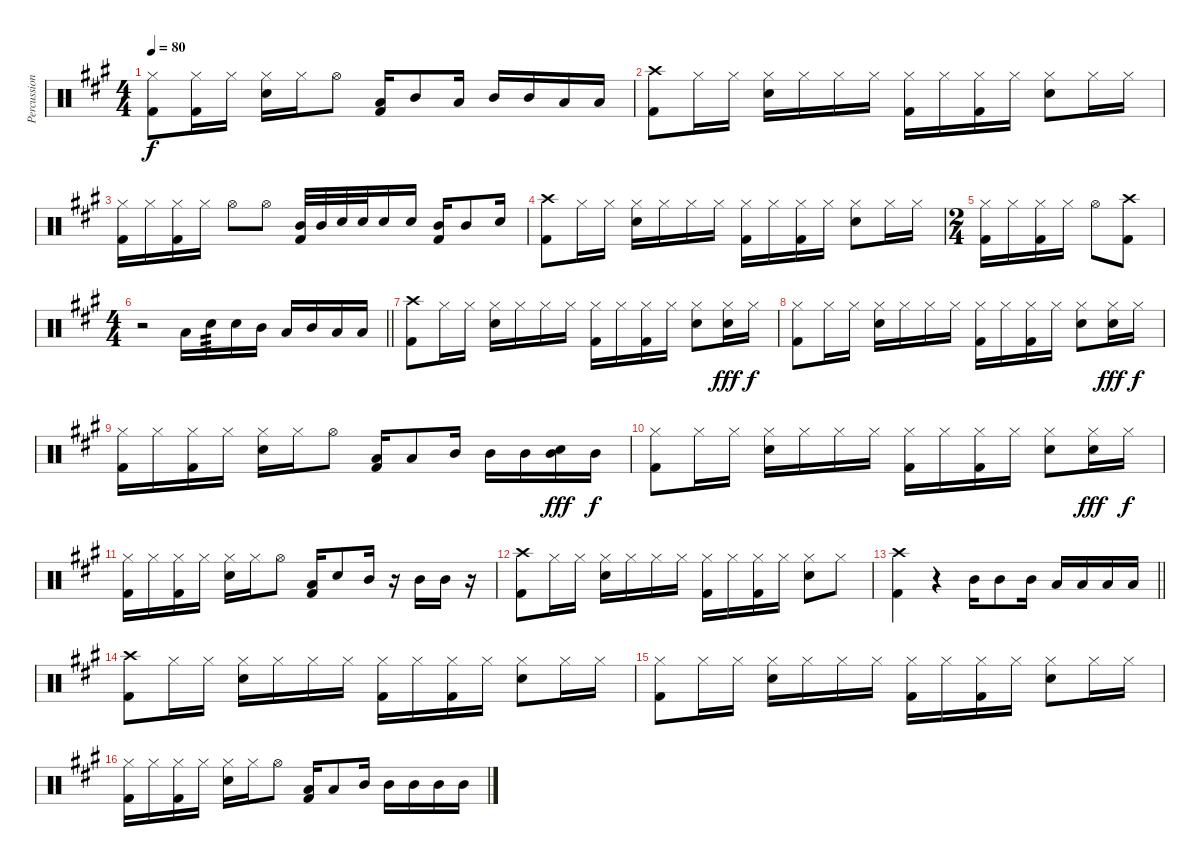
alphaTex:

\track ("Percussion" "Percussion") {instrument percussion}
\staff {score}
\articulation defaults
\ts (4 4)
\tempo 80
\clef neutral
\ks a
("Hi-Hat (closed)" "Kick (hit) 2").8{dy f} ("Hi-Hat (closed)" "Kick (hit) 2").16 "Hi-Hat (closed)".16 ("Hi-Hat (closed)" "Snare (hit) 2").16 "Hi-Hat (closed)".16 "Hi-Hat (open)".8 ("Low Floor Tom (hit)" "Kick (hit) 2").16 "Mid Tom (hit)".8 "Low Tom (hit)".16 "Mid Tom (hit)".16 "Mid Tom (hit)".16 "Low Floor Tom (hit)".16 "Low Floor Tom (hit)".16 |
("Crash high (hit)" "Kick (hit) 2").8 "Hi-Hat (closed)".16 "Hi-Hat (closed)".16 ("Hi-Hat (closed)" "Snare (hit) 2").16 "Hi-Hat (closed)".16 "Hi-Hat (closed)".16 "Hi-Hat (closed)".16 ("Hi-Hat (closed)" "Kick (hit) 2").16 "Hi-Hat (closed)".16 ("Hi-Hat (closed)" "Kick (hit) 2").16 "Hi-Hat (closed)".16 ("Hi-Hat (closed)" "Snare (hit) 2").8 "Hi-Hat (closed)".16 "Hi-Hat (closed)".16 |
("Hi-Hat (closed)" "Kick (hit) 2").16 "Hi-Hat (closed)".16 ("Hi-Hat (closed)" "Kick (hit) 2").16 "Hi-Hat (closed)".16 "Hi-Hat (open)".8 "Hi-Hat (open)".8 ("Mid Tom (hit)" "Kick (hit) 2").32 "Mid Tom (hit)".32 "Snare (hit) 2".32 "Snare (hit) 2".32 "Snare (hit) 2".16 "Snare (hit) 2".16 ("Mid Tom (hit)" "Kick (hit) 2").16 "Mid Tom (hit)".8 "Metronome (bell)".16 |
("Crash high (hit)" "Kick (hit) 2").8 "Hi-Hat (closed)".16 "Hi-Hat (closed)".16 ("Hi-Hat (closed)" "Snare (hit) 2").16 "Hi-Hat (closed)".16 "Hi-Hat (closed)".16 "Hi-Hat (closed)".16 ("Hi-Hat (closed)" "Kick (hit) 2").16 "Hi-Hat (closed)".16 ("Hi-Hat (closed)" "Kick (hit) 2").16 "Hi-Hat (closed)".16 ("Hi-Hat (closed)" "Snare (hit) 2").8 "Hi-Hat (closed)".16 "Hi-Hat (closed)".16 |
\ts (2 4)
("Hi-Hat (closed)" "Kick (hit) 2").16 "Hi-Hat (closed)".16 ("Hi-Hat (closed)" "Kick (hit) 2").16 "Hi-Hat (closed)".16 "Hi-Hat (open)".8 ("Crash high (hit)" "Kick (hit) 2").8 |
\ts (4 4)
\barLineRight lightlight
r.2 "Low Floor Tom (hit)".16 "Snare (hit) 2".16{tp 3} "Snare (hit) 2".16 "Mid Tom (hit)".16 "Low Floor Tom (hit)".16 "Mid Tom (hit)".16 "Low Floor Tom (hit)".16 "Low Floor Tom (hit)".16 |
("Crash high (hit)" "Kick (hit) 2").8 "Hi-Hat (closed)".16 "Hi-Hat (closed)".16 ("Hi-Hat (closed)" "Snare (hit) 2").16 "Hi-Hat (closed)".16 "Hi-Hat (closed)".16 "Hi-Hat (closed)".16 ("Hi-Hat (closed)" "Kick (hit) 2").16 "Hi-Hat (closed)".16 ("Hi-Hat (closed)" "Kick (hit) 2").16 "Hi-Hat (closed)".16 ("Hi-Hat (closed)" "Snare (hit) 2").8 ("Hi-Hat (closed)" "Hand Clap (hit)").16{dy fff} "Hi-Hat (closed)".16{dy f} |
("Hi-Hat (closed)" "Kick (hit) 2").8 "Hi-Hat (closed)".16 "Hi-Hat (closed)".16 ("Hi-Hat (closed)" "Snare (hit) 2").16 "Hi-Hat (closed)".16 "Hi-Hat (closed)".16 "Hi-Hat (closed)".16 ("Hi-Hat (closed)" "Kick (hit) 2").16 "Hi-Hat (closed)".16 ("Hi-Hat (closed)" "Kick (hit) 2").16 "Hi-Hat (closed)".16 ("Hi-Hat (closed)" "Snare (hit) 2").8 ("Hi-Hat (closed)" "Hand Clap (hit)").16{dy fff} "Hi-Hat (closed)".16{dy f} |
("Hi-Hat (closed)" "Kick (hit) 2").16 "Hi-Hat (closed)".16 ("Hi-Hat (closed)" "Kick (hit) 2").16 "Hi-Hat (closed)".16 ("Hi-Hat (closed)" "Snare (hit) 2").16 "Hi-Hat (closed)".16 "Hi-Hat (open)".8 ("Low Floor Tom (hit)" "Kick (hit) 2").16 "Low Floor Tom (hit)".8 "Mid Tom (hit)".16 "Mid Tom (hit)".16 "Mid Tom (hit)".16 ("Mid Tom (hit)" "Hand Clap (hit)").16{dy fff} "Mid Tom (hit)".16{dy f} |
("Hi-Hat (closed)" "Kick (hit) 2").8 "Hi-Hat (closed)".16 "Hi-Hat (closed)".16 ("Hi-Hat (closed)" "Snare (hit) 2").16 "Hi-Hat (closed)".16 "Hi-Hat (closed)".16 "Hi-Hat (closed)".16 ("Hi-Hat (closed)" "Kick (hit) 2").16 "Hi-Hat (closed)".16 ("Hi-Hat (closed)" "Kick (hit) 2").16 "Hi-Hat (closed)".16 ("Hi-Hat (closed)" "Snare (hit) 2").8 ("Hi-Hat (closed)" "Hand Clap (hit)").16{dy fff} "Hi-Hat (closed)".16{dy f} |
("Hi-Hat (closed)" "Kick (hit) 2").16 "Hi-Hat (closed)".16 ("Hi-Hat (closed)" "Kick (hit) 2").16 "Hi-Hat (closed)".16 ("Hi-Hat (closed)" "Snare (hit) 2").16 "Hi-Hat (closed)".16 "Hi-Hat (open)".8 ("Low Floor Tom (hit)" "Kick (hit) 2").16 "Snare (hit) 2".8 "Mid Tom (hit)".16 r.16 "Mid Tom (hit)".16 "Mid Tom (hit)".16 r.16 |
("Crash high (hit)" "Kick (hit) 2").8 "Hi-Hat (closed)".16 "Hi-Hat (closed)".16 ("Hi-Hat (closed)" "Snare (hit) 2").16 "Hi-Hat (closed)".16 "Hi-Hat (closed)".16 "Hi-Hat (closed)".16 ("Hi-Hat (closed)" "Kick (hit) 2").16 "Hi-Hat (closed)".16 ("Hi-Hat (closed)" "Kick (hit) 2").16 "Hi-Hat (closed)".16 ("Hi-Hat (closed)" "Snare (hit) 2").8 "Hi-Hat (closed)".8 |
\barLineRight lightlight
("Crash high (hit)" "Kick (hit) 2").4 r.4 "Mid Tom (hit)".16 "Mid Tom (hit)".8 "Mid Tom (hit)".16 "Low Floor Tom (hit)".16 "Low Floor Tom (hit)".16 "Low Floor Tom (hit)".16 "Low Floor Tom (hit)".16 |
("Crash high (hit)" "Kick (hit) 2").8 "Hi-Hat (closed)".16 "Hi-Hat (closed)".16 ("Hi-Hat (closed)" "Snare (hit) 2").16 "Hi-Hat (closed)".16 "Hi-Hat (closed)".16 "Hi-Hat (closed)".16 ("Hi-Hat (closed)" "Kick (hit) 2").16 "Hi-Hat (closed)".16 ("Hi-Hat (closed)" "Kick (hit) 2").16 "Hi-Hat (closed)".16 ("Hi-Hat (closed)" "Snare (hit) 2").8 "Hi-Hat (closed)".16 "Hi-Hat (closed)".16 |
("Hi-Hat (closed)" "Kick (hit) 2").8 "Hi-Hat (closed)".16 "Hi-Hat (closed)".16 ("Hi-Hat (closed)" "Snare (hit) 2").16 "Hi-Hat (closed)".16 "Hi-Hat (closed)".16 "Hi-Hat (closed)".16 ("Hi-Hat (closed)" "Kick (hit) 2").16 "Hi-Hat (closed)".16 ("Hi-Hat (closed)" "Kick (hit) 2").16 "Hi-Hat (closed)".16 ("Hi-Hat (closed)" "Snare (hit) 2").8 "Hi-Hat (closed)".16 "Hi-Hat (closed)".16 |
("Hi-Hat (closed)" "Kick (hit) 2").16 "Hi-Hat (closed)".16 ("Hi-Hat (closed)" "Kick (hit) 2").16 "Hi-Hat (closed)".16 ("Hi-Hat (closed)" "Snare (hit) 2").16 "Hi-Hat (closed)".16 "Hi-Hat (open)".8 ("Low Floor Tom (hit)" "Kick (hit) 2").16 "Low Floor Tom (hit)".8 "Mid Tom (hit)".16 "Mid Tom (hit)".16 "Mid Tom (hit)".16 "Mid Tom (hit)".16 "Mid Tom (hit)".16
